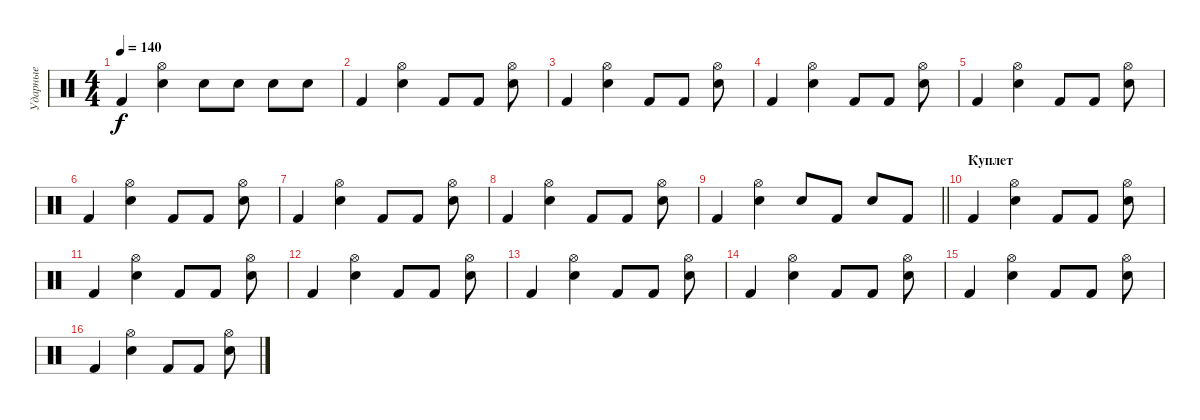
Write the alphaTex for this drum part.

\track ("Ударные" "Ударные") {instrument percussion}
\staff {score}
\articulation defaults
\ts (4 4)
\tempo 140
\clef neutral
\ks c "Kick (hit) 2".4{dy f}
("Electric Snare (hit)" "Hi-Hat (open)").4 "Electric Snare (hit)".8 "Electric Snare (hit)".8 "Electric Snare (hit)".8 "Electric Snare (hit)".8 |
"Kick (hit) 2".4 ("Electric Snare (hit)" "Hi-Hat (open)").4 "Kick (hit) 2".8 "Kick (hit) 2".8 ("Electric Snare (hit)" "Hi-Hat (open)").8 |
"Kick (hit) 2".4 ("Electric Snare (hit)" "Hi-Hat (open)").4 "Kick (hit) 2".8 "Kick (hit) 2".8 ("Electric Snare (hit)" "Hi-Hat (open)").8 |
"Kick (hit) 2".4 ("Electric Snare (hit)" "Hi-Hat (open)").4 "Kick (hit) 2".8 "Kick (hit) 2".8 ("Electric Snare (hit)" "Hi-Hat (open)").8 |
"Kick (hit) 2".4 ("Electric Snare (hit)" "Hi-Hat (open)").4 "Kick (hit) 2".8 "Kick (hit) 2".8 ("Electric Snare (hit)" "Hi-Hat (open)").8 |
"Kick (hit) 2".4 ("Electric Snare (hit)" "Hi-Hat (open)").4 "Kick (hit) 2".8 "Kick (hit) 2".8 ("Electric Snare (hit)" "Hi-Hat (open)").8 |
"Kick (hit) 2".4 ("Electric Snare (hit)" "Hi-Hat (open)").4 "Kick (hit) 2".8 "Kick (hit) 2".8 ("Electric Snare (hit)" "Hi-Hat (open)").8 |
"Kick (hit) 2".4 ("Electric Snare (hit)" "Hi-Hat (open)").4 "Kick (hit) 2".8 "Kick (hit) 2".8 ("Electric Snare (hit)" "Hi-Hat (open)").8 |
\barLineRight lightlight "Kick (hit) 2".4
("Electric Snare (hit)" "Hi-Hat (open)").4 "Electric Snare (hit)".8 "Kick (hit) 2".8 "Electric Snare (hit)".8 "Kick (hit) 2".8 |
\section ("" "Куплет")
"Kick (hit) 2".4 ("Electric Snare (hit)" "Hi-Hat (open)").4 "Kick (hit) 2".8 "Kick (hit) 2".8 ("Electric Snare (hit)" "Hi-Hat (open)").8 |
"Kick (hit) 2".4 ("Electric Snare (hit)" "Hi-Hat (open)").4 "Kick (hit) 2".8 "Kick (hit) 2".8 ("Electric Snare (hit)" "Hi-Hat (open)").8 |
"Kick (hit) 2".4 ("Electric Snare (hit)" "Hi-Hat (open)").4 "Kick (hit) 2".8 "Kick (hit) 2".8 ("Electric Snare (hit)" "Hi-Hat (open)").8 |
"Kick (hit) 2".4 ("Electric Snare (hit)" "Hi-Hat (open)").4 "Kick (hit) 2".8 "Kick (hit) 2".8 ("Electric Snare (hit)" "Hi-Hat (open)").8 |
"Kick (hit) 2".4 ("Electric Snare (hit)" "Hi-Hat (open)").4 "Kick (hit) 2".8 "Kick (hit) 2".8 ("Electric Snare (hit)" "Hi-Hat (open)").8 |
"Kick (hit) 2".4 ("Electric Snare (hit)" "Hi-Hat (open)").4 "Kick (hit) 2".8 "Kick (hit) 2".8 ("Electric Snare (hit)" "Hi-Hat (open)").8 |
"Kick (hit) 2".4 ("Electric Snare (hit)" "Hi-Hat (open)").4 "Kick (hit) 2".8 "Kick (hit) 2".8 ("Electric Snare (hit)" "Hi-Hat (open)").8
